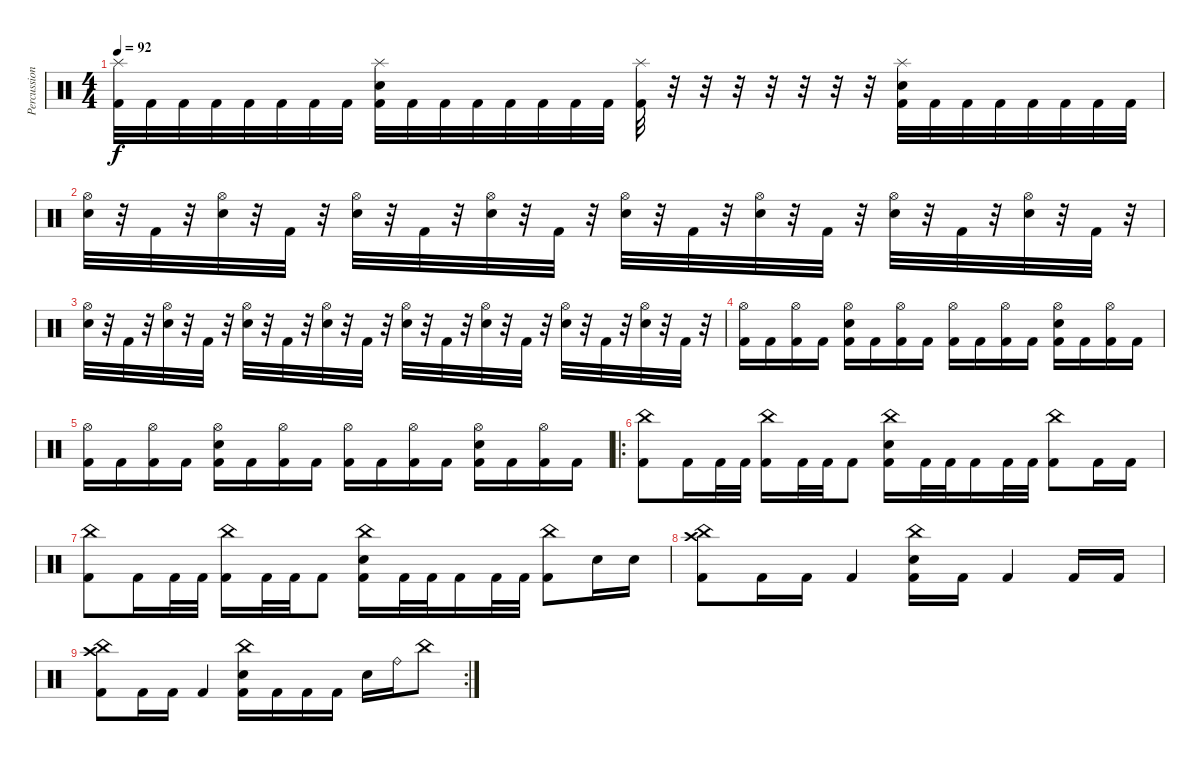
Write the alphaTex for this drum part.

\track ("Percussion" "Percussion") {instrument percussion}
\staff {score}
\articulation defaults
\ts (4 4)
\tempo 92
\clef neutral
\ks c
("Splash (hit)" "Kick (hit) 2").32{dy f} "Kick (hit) 2".32 "Kick (hit) 2".32 "Kick (hit) 2".32 "Kick (hit) 2".32 "Kick (hit) 2".32 "Kick (hit) 2".32 "Kick (hit) 2".32 ("Splash (hit)" "Electric Snare (hit)" "Kick (hit) 2").32 "Kick (hit) 2".32 "Kick (hit) 2".32 "Kick (hit) 2".32 "Kick (hit) 2".32 "Kick (hit) 2".32 "Kick (hit) 2".32 "Kick (hit) 2".32 ("Splash (hit)" "Kick (hit) 2").32 r.32 r.32 r.32 r.32 r.32 r.32 r.32 ("Splash (hit)" "Electric Snare (hit)" "Kick (hit) 2").32 "Kick (hit) 2".32 "Kick (hit) 2".32 "Kick (hit) 2".32 "Kick (hit) 2".32 "Kick (hit) 2".32 "Kick (hit) 2".32 "Kick (hit) 2".32 |
("Hi-Hat (open)" "Electric Snare (hit)").32 r.32 "Kick (hit) 2".32 r.32 ("Hi-Hat (open)" "Electric Snare (hit)").32 r.32 "Kick (hit) 2".32 r.32 ("Hi-Hat (open)" "Electric Snare (hit)").32 r.32 "Kick (hit) 2".32 r.32 ("Hi-Hat (open)" "Electric Snare (hit)").32 r.32 "Kick (hit) 2".32 r.32 ("Hi-Hat (open)" "Electric Snare (hit)").32 r.32 "Kick (hit) 2".32 r.32 ("Hi-Hat (open)" "Electric Snare (hit)").32 r.32 "Kick (hit) 2".32 r.32 ("Hi-Hat (open)" "Electric Snare (hit)").32 r.32 "Kick (hit) 2".32 r.32 ("Hi-Hat (open)" "Electric Snare (hit)").32 r.32 "Kick (hit) 2".32 r.32 |
("Hi-Hat (open)" "Electric Snare (hit)").32 r.32 "Kick (hit) 2".32 r.32 ("Hi-Hat (open)" "Electric Snare (hit)").32 r.32 "Kick (hit) 2".32 r.32 ("Hi-Hat (open)" "Electric Snare (hit)").32 r.32 "Kick (hit) 2".32 r.32 ("Hi-Hat (open)" "Electric Snare (hit)").32 r.32 "Kick (hit) 2".32 r.32 ("Hi-Hat (open)" "Electric Snare (hit)").32 r.32 "Kick (hit) 2".32 r.32 ("Hi-Hat (open)" "Electric Snare (hit)").32 r.32 "Kick (hit) 2".32 r.32 ("Hi-Hat (open)" "Electric Snare (hit)").32 r.32 "Kick (hit) 2".32 r.32 ("Hi-Hat (open)" "Electric Snare (hit)").32 r.32 "Kick (hit) 2".32 r.32 |
("Hi-Hat (open)" "Kick (hit) 2").16 "Kick (hit) 2".16 ("Hi-Hat (open)" "Kick (hit) 2").16 "Kick (hit) 2".16 ("Hi-Hat (open)" "Electric Snare (hit)" "Kick (hit) 2").16 "Kick (hit) 2".16 ("Hi-Hat (open)" "Kick (hit) 2").16 "Kick (hit) 2".16 ("Hi-Hat (open)" "Kick (hit) 2").16 "Kick (hit) 2".16 ("Hi-Hat (open)" "Kick (hit) 2").16 "Kick (hit) 2".16 ("Hi-Hat (open)" "Electric Snare (hit)" "Kick (hit) 2").16 "Kick (hit) 2".16 ("Hi-Hat (open)" "Kick (hit) 2").16 "Kick (hit) 2".16 |
("Hi-Hat (open)" "Kick (hit) 2").16 "Kick (hit) 2".16 ("Hi-Hat (open)" "Kick (hit) 2").16 "Kick (hit) 2".16 ("Hi-Hat (open)" "Electric Snare (hit)" "Kick (hit) 2").16 "Kick (hit) 2".16 ("Hi-Hat (open)" "Kick (hit) 2").16 "Kick (hit) 2".16 ("Hi-Hat (open)" "Kick (hit) 2").16 "Kick (hit) 2".16 ("Hi-Hat (open)" "Kick (hit) 2").16 "Kick (hit) 2".16 ("Hi-Hat (open)" "Electric Snare (hit)" "Kick (hit) 2").16 "Kick (hit) 2".16 ("Hi-Hat (open)" "Kick (hit) 2").16 "Kick (hit) 2".16 |
\ro
("China (hit)" "Kick (hit) 2").8 "Kick (hit) 2".16 "Kick (hit) 2".32 "Kick (hit) 2".32 ("China (hit)" "Kick (hit) 2").16 "Kick (hit) 2".32 "Kick (hit) 2".32 "Kick (hit) 2".8 ("China (hit)" "Electric Snare (hit)" "Kick (hit) 2").16 "Kick (hit) 2".32 "Kick (hit) 2".32 "Kick (hit) 2".16 "Kick (hit) 2".32 "Kick (hit) 2".32 ("China (hit)" "Kick (hit) 2").8 "Kick (hit) 2".16 "Kick (hit) 2".16 |
("China (hit)" "Kick (hit) 2").8 "Kick (hit) 2".16 "Kick (hit) 2".32 "Kick (hit) 2".32 ("China (hit)" "Kick (hit) 2").16 "Kick (hit) 2".32 "Kick (hit) 2".32 "Kick (hit) 2".8 ("China (hit)" "Electric Snare (hit)" "Kick (hit) 2").16 "Kick (hit) 2".32 "Kick (hit) 2".32 "Kick (hit) 2".16 "Kick (hit) 2".32 "Kick (hit) 2".32 ("China (hit)" "Kick (hit) 2").8 "Electric Snare (hit)".16 "Electric Snare (hit)".16 |
("China (hit)" "Crash high (hit)" "Kick (hit) 2").8 "Kick (hit) 2".16 "Kick (hit) 2".16 "Kick (hit) 2".4 ("China (hit)" "Electric Snare (hit)" "Kick (hit) 2").16 "Kick (hit) 2".16 "Kick (hit) 2".4 "Kick (hit) 2".16 "Kick (hit) 2".16 |
\rc 2
("China (hit)" "Crash high (hit)" "Kick (hit) 2").8 "Kick (hit) 2".16 "Kick (hit) 2".16 "Kick (hit) 2".4 ("China (hit)" "Electric Snare (hit)" "Kick (hit) 2").16 "Kick (hit) 2".16 "Kick (hit) 2".16 "Kick (hit) 2".16 "Electric Snare (hit)".16 "Ride (bell)".16 "China (hit)".8
